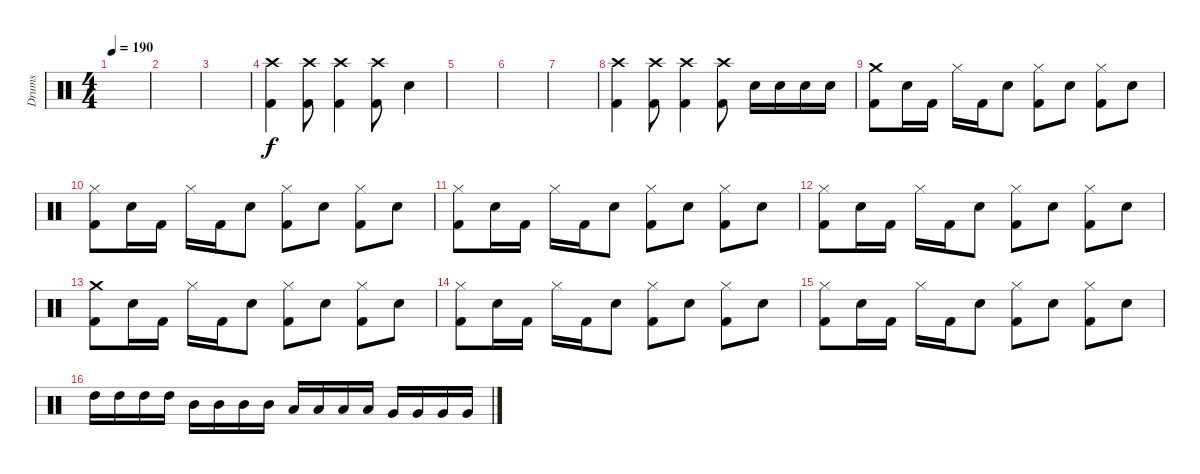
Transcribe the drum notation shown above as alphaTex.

\track ("Drums" "Drums") {instrument percussion}
\staff {score}
\articulation defaults
\ts (4 4)
\tempo 190
\clef neutral
\ks c
|
|
|
("Crash high (hit)" "Kick (hit) 2").4 ("Crash high (hit)" "Kick (hit) 2").8 ("Crash high (hit)" "Kick (hit) 2").4 ("Crash high (hit)" "Kick (hit) 2").8 "Electric Snare (hit)".4 |
|
|
|
("Crash high (hit)" "Kick (hit) 2").4 ("Crash high (hit)" "Kick (hit) 2").8 ("Crash high (hit)" "Kick (hit) 2").4 ("Crash high (hit)" "Kick (hit) 2").8 "Electric Snare (hit)".16 "Electric Snare (hit)".16 "Electric Snare (hit)".16 "Electric Snare (hit)".16 |
("Crash medium (hit)" "Kick (hit) 2").8 "Electric Snare (hit)".16 "Kick (hit) 2".16 "Hi-Hat (closed)".16 "Kick (hit) 2".16 "Electric Snare (hit)".8 ("Hi-Hat (closed)" "Kick (hit) 2").8 "Electric Snare (hit)".8 ("Hi-Hat (closed)" "Kick (hit) 2").8 "Electric Snare (hit)".8 |
("Hi-Hat (closed)" "Kick (hit) 2").8 "Electric Snare (hit)".16 "Kick (hit) 2".16 "Hi-Hat (closed)".16 "Kick (hit) 2".16 "Electric Snare (hit)".8 ("Hi-Hat (closed)" "Kick (hit) 2").8 "Electric Snare (hit)".8 ("Hi-Hat (closed)" "Kick (hit) 2").8 "Electric Snare (hit)".8 |
("Hi-Hat (closed)" "Kick (hit) 2").8 "Electric Snare (hit)".16 "Kick (hit) 2".16 "Hi-Hat (closed)".16 "Kick (hit) 2".16 "Electric Snare (hit)".8 ("Hi-Hat (closed)" "Kick (hit) 2").8 "Electric Snare (hit)".8 ("Hi-Hat (closed)" "Kick (hit) 2").8 "Electric Snare (hit)".8 |
("Hi-Hat (closed)" "Kick (hit) 2").8 "Electric Snare (hit)".16 "Kick (hit) 2".16 "Hi-Hat (closed)".16 "Kick (hit) 2".16 "Electric Snare (hit)".8 ("Hi-Hat (closed)" "Kick (hit) 2").8 "Electric Snare (hit)".8 ("Hi-Hat (closed)" "Kick (hit) 2").8 "Electric Snare (hit)".8 |
("Crash medium (hit)" "Kick (hit) 2").8 "Electric Snare (hit)".16 "Kick (hit) 2".16 "Hi-Hat (closed)".16 "Kick (hit) 2".16 "Electric Snare (hit)".8 ("Hi-Hat (closed)" "Kick (hit) 2").8 "Electric Snare (hit)".8 ("Hi-Hat (closed)" "Kick (hit) 2").8 "Electric Snare (hit)".8 |
("Hi-Hat (closed)" "Kick (hit) 2").8 "Electric Snare (hit)".16 "Kick (hit) 2".16 "Hi-Hat (closed)".16 "Kick (hit) 2".16 "Electric Snare (hit)".8 ("Hi-Hat (closed)" "Kick (hit) 2").8 "Electric Snare (hit)".8 ("Hi-Hat (closed)" "Kick (hit) 2").8 "Electric Snare (hit)".8 |
("Hi-Hat (closed)" "Kick (hit) 2").8 "Electric Snare (hit)".16 "Kick (hit) 2".16 "Hi-Hat (closed)".16 "Kick (hit) 2".16 "Electric Snare (hit)".8 ("Hi-Hat (closed)" "Kick (hit) 2").8 "Electric Snare (hit)".8 ("Hi-Hat (closed)" "Kick (hit) 2").8 "Electric Snare (hit)".8 |
"High Tom (hit)".16 "High Tom (hit)".16 "High Tom (hit)".16 "High Tom (hit)".16 "Mid Tom (hit)".16 "Mid Tom (hit)".16 "Mid Tom (hit)".16 "Mid Tom (hit)".16 "Low Tom (hit)".16 "Low Tom (hit)".16 "Low Tom (hit)".16 "Low Tom (hit)".16 "Very Low Tom (hit)".16 "Very Low Tom (hit)".16 "Very Low Tom (hit)".16 "Very Low Tom (hit)".16
